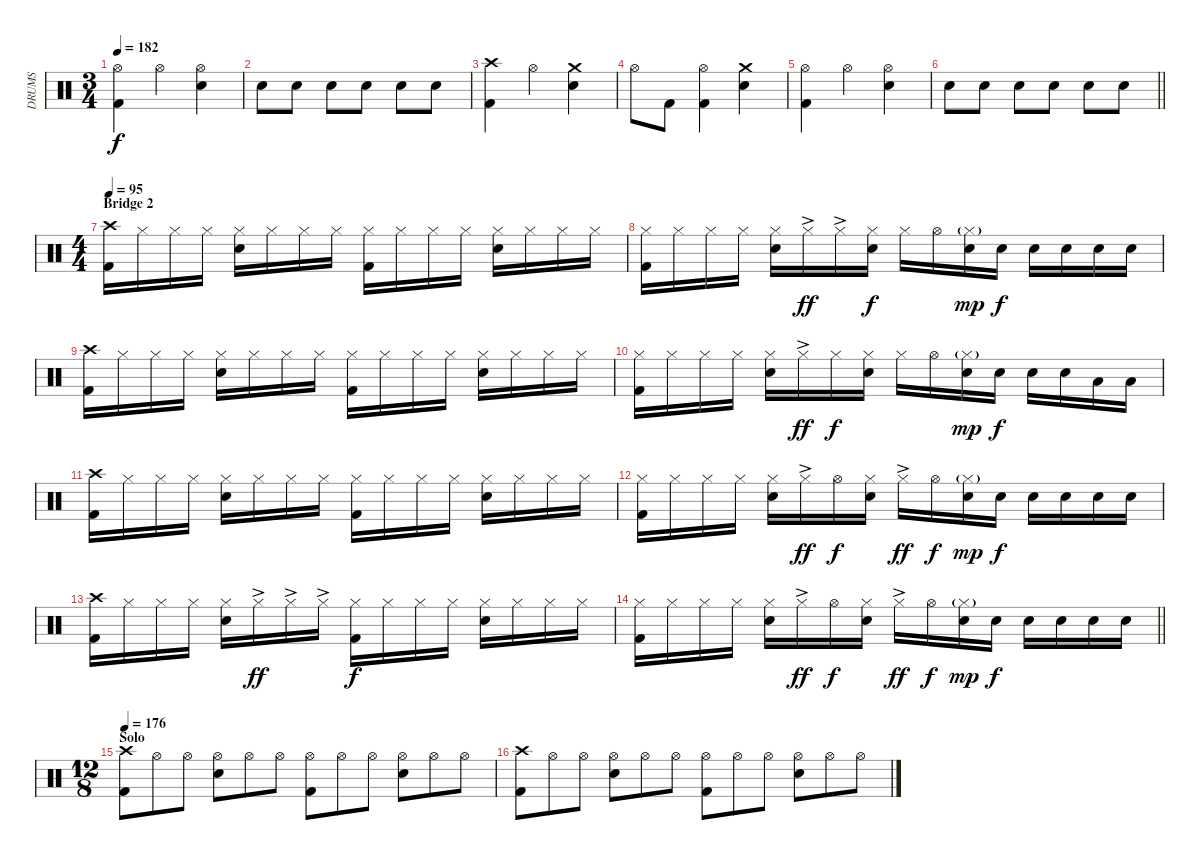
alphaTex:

\track ("DRUMS" "DRUMS") {instrument percussion}
\staff {score}
\articulation defaults
\ts (3 4)
\tempo 182
\clef neutral
\ks c
("Hi-Hat (open)" "Kick (hit) 2").4{dy f} "Hi-Hat (open)".4 ("Hi-Hat (open)" "Snare (hit) 2").4 |
"Snare (hit) 2".8 "Snare (hit) 2".8 "Snare (hit) 2".8 "Snare (hit) 2".8 "Snare (hit) 2".8 "Snare (hit) 2".8 |
("Crash high (hit)" "Kick (hit) 2").4 "Hi-Hat (open)".4 ("Crash medium (hit)" "Snare (hit) 2").4 |
"Hi-Hat (open)".8 "Kick (hit) 2".8 ("Hi-Hat (open)" "Kick (hit) 2").4 ("Crash medium (hit)" "Snare (hit) 2").4 |
("Hi-Hat (open)" "Kick (hit) 2").4 "Hi-Hat (open)".4 ("Hi-Hat (open)" "Snare (hit) 2").4 |
\barLineRight lightlight "Snare (hit) 2".8 "Snare (hit) 2".8 "Snare (hit) 2".8 "Snare (hit) 2".8 "Snare (hit) 2".8 "Snare (hit) 2".8
|
\ts (4 4)
\section ("" "Bridge 2")
\tempo 95
("Crash high (hit)" "Kick (hit) 2").16 "Hi-Hat (closed)".16 "Hi-Hat (closed)".16 "Hi-Hat (closed)".16 ("Hi-Hat (closed)" "Snare (hit) 2").16 "Hi-Hat (closed)".16 "Hi-Hat (closed)".16 "Hi-Hat (closed)".16 ("Hi-Hat (closed)" "Kick (hit) 2").16 "Hi-Hat (closed)".16 "Hi-Hat (closed)".16 "Hi-Hat (closed)".16 ("Hi-Hat (closed)" "Snare (hit) 2").16 "Hi-Hat (closed)".16 "Hi-Hat (closed)".16 "Hi-Hat (closed)".16 |
("Hi-Hat (closed)" "Kick (hit) 2").16 "Hi-Hat (closed)".16 "Hi-Hat (closed)".16 "Hi-Hat (closed)".16 ("Hi-Hat (closed)" "Snare (hit) 2").16 "Hi-Hat (closed)"{ac}.16{dy ff} "Hi-Hat (closed)"{ac}.16 ("Hi-Hat (closed)" "Snare (hit) 2").16{dy f} "Hi-Hat (closed)".16 "Hi-Hat (open)".16 ("Hi-Hat (closed)"{g} "Snare (hit) 2").16{dy mp} "Snare (hit) 2".16{dy f} "Snare (hit) 2".16 "Snare (hit) 2".16 "Snare (hit) 2".16 "Snare (hit) 2".16 |
("Crash high (hit)" "Kick (hit) 2").16 "Hi-Hat (closed)".16 "Hi-Hat (closed)".16 "Hi-Hat (closed)".16 ("Hi-Hat (closed)" "Snare (hit) 2").16 "Hi-Hat (closed)".16 "Hi-Hat (closed)".16 "Hi-Hat (closed)".16 ("Hi-Hat (closed)" "Kick (hit) 2").16 "Hi-Hat (closed)".16 "Hi-Hat (closed)".16 "Hi-Hat (closed)".16 ("Hi-Hat (closed)" "Snare (hit) 2").16 "Hi-Hat (closed)".16 "Hi-Hat (closed)".16 "Hi-Hat (closed)".16 |
("Hi-Hat (closed)" "Kick (hit) 2").16 "Hi-Hat (closed)".16 "Hi-Hat (closed)".16 "Hi-Hat (closed)".16 ("Hi-Hat (closed)" "Snare (hit) 2").16 "Hi-Hat (closed)"{ac}.16{dy ff} "Hi-Hat (closed)".16{dy f} ("Hi-Hat (closed)" "Snare (hit) 2").16 "Hi-Hat (closed)".16 "Hi-Hat (open)".16 ("Hi-Hat (closed)"{g} "Snare (hit) 2").16{dy mp} "Snare (hit) 2".16{dy f} "Snare (hit) 2".16 "Snare (hit) 2".16 "Low Tom (hit)".16 "Low Tom (hit)".16 |
("Crash high (hit)" "Kick (hit) 2").16 "Hi-Hat (closed)".16 "Hi-Hat (closed)".16 "Hi-Hat (closed)".16 ("Hi-Hat (closed)" "Snare (hit) 2").16 "Hi-Hat (closed)".16 "Hi-Hat (closed)".16 "Hi-Hat (closed)".16 ("Hi-Hat (closed)" "Kick (hit) 2").16 "Hi-Hat (closed)".16 "Hi-Hat (closed)".16 "Hi-Hat (closed)".16 ("Hi-Hat (closed)" "Snare (hit) 2").16 "Hi-Hat (closed)".16 "Hi-Hat (closed)".16 "Hi-Hat (closed)".16 |
("Hi-Hat (closed)" "Kick (hit) 2").16 "Hi-Hat (closed)".16 "Hi-Hat (closed)".16 "Hi-Hat (closed)".16 ("Hi-Hat (closed)" "Snare (hit) 2").16 "Hi-Hat (closed)"{ac}.16{dy ff} "Hi-Hat (open)".16{dy f} ("Hi-Hat (closed)" "Snare (hit) 2").16 "Hi-Hat (closed)"{ac}.16{dy ff} "Hi-Hat (open)".16{dy f} ("Hi-Hat (closed)"{g} "Snare (hit) 2").16{dy mp} "Snare (hit) 2".16{dy f} "Snare (hit) 2".16 "Snare (hit) 2".16 "Snare (hit) 2".16 "Snare (hit) 2".16 |
("Crash high (hit)" "Kick (hit) 2").16 "Hi-Hat (closed)".16 "Hi-Hat (closed)".16 "Hi-Hat (closed)".16 ("Hi-Hat (closed)" "Snare (hit) 2").16 "Hi-Hat (closed)"{ac}.16{dy ff} "Hi-Hat (closed)"{ac}.16 "Hi-Hat (closed)"{ac}.16 ("Hi-Hat (closed)" "Kick (hit) 2").16{dy f} "Hi-Hat (closed)".16 "Hi-Hat (closed)".16 "Hi-Hat (closed)".16 ("Hi-Hat (closed)" "Snare (hit) 2").16 "Hi-Hat (closed)".16 "Hi-Hat (closed)".16 "Hi-Hat (closed)".16 |
\barLineRight lightlight
("Hi-Hat (closed)" "Kick (hit) 2").16 "Hi-Hat (closed)".16 "Hi-Hat (closed)".16 "Hi-Hat (closed)".16 ("Hi-Hat (closed)" "Snare (hit) 2").16 "Hi-Hat (closed)"{ac}.16{dy ff} "Hi-Hat (open)".16{dy f} ("Hi-Hat (closed)" "Snare (hit) 2").16 "Hi-Hat (closed)"{ac}.16{dy ff} "Hi-Hat (open)".16{dy f} ("Hi-Hat (closed)"{g} "Snare (hit) 2").16{dy mp} "Snare (hit) 2".16{dy f} "Snare (hit) 2".16 "Snare (hit) 2".16 "Snare (hit) 2".16 "Snare (hit) 2".16 |
\ts (12 8)
\section ("" "Solo")
\tempo 176
("Crash high (hit)" "Kick (hit) 2").8 "Hi-Hat (open)".8 "Hi-Hat (open)".8 ("Hi-Hat (open)" "Snare (hit) 2").8 "Hi-Hat (open)".8 "Hi-Hat (open)".8 ("Hi-Hat (open)" "Kick (hit) 2").8 "Hi-Hat (open)".8 "Hi-Hat (open)".8 ("Hi-Hat (open)" "Snare (hit) 2").8 "Hi-Hat (open)".8 "Hi-Hat (open)".8 |
("Crash high (hit)" "Kick (hit) 2").8 "Hi-Hat (open)".8 "Hi-Hat (open)".8 ("Hi-Hat (open)" "Snare (hit) 2").8 "Hi-Hat (open)".8 "Hi-Hat (open)".8 ("Hi-Hat (open)" "Kick (hit) 2").8 "Hi-Hat (open)".8 "Hi-Hat (open)".8 ("Hi-Hat (open)" "Snare (hit) 2").8 "Hi-Hat (open)".8 "Hi-Hat (open)".8
